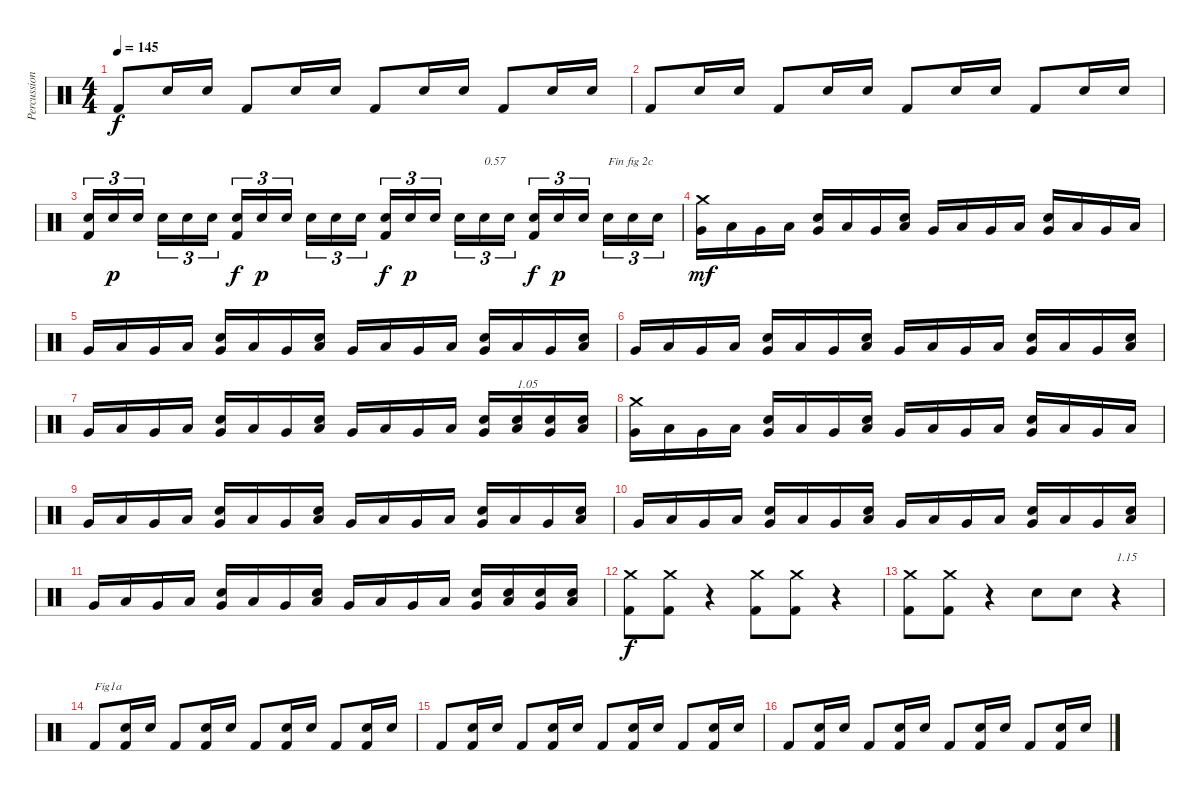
\track ("Percussions" "Percussion") {instrument percussion}
\staff {score}
\articulation defaults
\ts (4 4)
\tempo 145
\clef neutral
\ks c "Kick (hit) 2".8{dy f} "Electric Snare (hit)".16 "Electric Snare (hit)".16 "Kick (hit) 2".8 "Electric Snare (hit)".16 "Electric Snare (hit)".16 "Kick (hit) 2".8 "Electric Snare (hit)".16 "Electric Snare (hit)".16 "Kick (hit) 2".8 "Electric Snare (hit)".16 "Electric Snare (hit)".16
|
"Kick (hit) 2".8 "Electric Snare (hit)".16 "Electric Snare (hit)".16 "Kick (hit) 2".8 "Electric Snare (hit)".16 "Electric Snare (hit)".16 "Kick (hit) 2".8 "Electric Snare (hit)".16 "Electric Snare (hit)".16 "Kick (hit) 2".8 "Electric Snare (hit)".16 "Electric Snare (hit)".16 |
("Kick (hit) 2" "Electric Snare (hit)").16{tu (3 2)} "Electric Snare (hit)".16{tu (3 2) dy p} "Electric Snare (hit)".16{tu (3 2)} "Electric Snare (hit)".16{tu (3 2)} "Electric Snare (hit)".16{tu (3 2)} "Electric Snare (hit)".16{tu (3 2)} ("Kick (hit) 2" "Electric Snare (hit)").16{tu (3 2) dy f} "Electric Snare (hit)".16{tu (3 2) dy p} "Electric Snare (hit)".16{tu (3 2)} "Electric Snare (hit)".16{tu (3 2)} "Electric Snare (hit)".16{tu (3 2)} "Electric Snare (hit)".16{tu (3 2)} ("Kick (hit) 2" "Electric Snare (hit)").16{tu (3 2) dy f} "Electric Snare (hit)".16{tu (3 2) dy p} "Electric Snare (hit)".16{tu (3 2)} "Electric Snare (hit)".16{tu (3 2)} "Electric Snare (hit)".16{tu (3 2) txt "0.57"} "Electric Snare (hit)".16{tu (3 2)} ("Kick (hit) 2" "Electric Snare (hit)").16{tu (3 2) dy f} "Electric Snare (hit)".16{tu (3 2) dy p} "Electric Snare (hit)".16{tu (3 2)} "Electric Snare (hit)".16{tu (3 2) txt "Fin fig 2c"} "Electric Snare (hit)".16{tu (3 2)} "Electric Snare (hit)".16{tu (3 2)} |
("Very Low Tom (hit)" "Crash medium (hit)").16{dy mf} "Low Tom (hit)".16 "Very Low Tom (hit)".16 "Low Tom (hit)".16 ("Very Low Tom (hit)" "Electric Snare (hit)").16 "Low Tom (hit)".16 "Very Low Tom (hit)".16 ("Low Tom (hit)" "Electric Snare (hit)").16 "Very Low Tom (hit)".16 "Low Tom (hit)".16 "Very Low Tom (hit)".16 "Low Tom (hit)".16 ("Very Low Tom (hit)" "Electric Snare (hit)").16 "Low Tom (hit)".16 "Very Low Tom (hit)".16 "Low Tom (hit)".16 |
"Very Low Tom (hit)".16 "Low Tom (hit)".16 "Very Low Tom (hit)".16 "Low Tom (hit)".16 ("Very Low Tom (hit)" "Electric Snare (hit)").16 "Low Tom (hit)".16 "Very Low Tom (hit)".16 ("Low Tom (hit)" "Electric Snare (hit)").16 "Very Low Tom (hit)".16 "Low Tom (hit)".16 "Very Low Tom (hit)".16 "Low Tom (hit)".16 ("Very Low Tom (hit)" "Electric Snare (hit)").16 "Low Tom (hit)".16 "Very Low Tom (hit)".16 ("Low Tom (hit)" "Electric Snare (hit)").16 |
"Very Low Tom (hit)".16 "Low Tom (hit)".16 "Very Low Tom (hit)".16 "Low Tom (hit)".16 ("Very Low Tom (hit)" "Electric Snare (hit)").16 "Low Tom (hit)".16 "Very Low Tom (hit)".16 ("Low Tom (hit)" "Electric Snare (hit)").16 "Very Low Tom (hit)".16 "Low Tom (hit)".16 "Very Low Tom (hit)".16 "Low Tom (hit)".16 ("Very Low Tom (hit)" "Electric Snare (hit)").16 "Low Tom (hit)".16 "Very Low Tom (hit)".16 ("Low Tom (hit)" "Electric Snare (hit)").16 |
"Very Low Tom (hit)".16 "Low Tom (hit)".16 "Very Low Tom (hit)".16 "Low Tom (hit)".16 ("Very Low Tom (hit)" "Electric Snare (hit)").16 "Low Tom (hit)".16 "Very Low Tom (hit)".16 ("Low Tom (hit)" "Electric Snare (hit)").16 "Very Low Tom (hit)".16 "Low Tom (hit)".16 "Very Low Tom (hit)".16 "Low Tom (hit)".16 ("Very Low Tom (hit)" "Electric Snare (hit)").16 ("Low Tom (hit)" "Electric Snare (hit)").16{txt "1.05"} ("Very Low Tom (hit)" "Electric Snare (hit)").16 ("Low Tom (hit)" "Electric Snare (hit)").16 |
("Very Low Tom (hit)" "Crash medium (hit)").16 "Low Tom (hit)".16 "Very Low Tom (hit)".16 "Low Tom (hit)".16 ("Very Low Tom (hit)" "Electric Snare (hit)").16 "Low Tom (hit)".16 "Very Low Tom (hit)".16 ("Low Tom (hit)" "Electric Snare (hit)").16 "Very Low Tom (hit)".16 "Low Tom (hit)".16 "Very Low Tom (hit)".16 "Low Tom (hit)".16 ("Very Low Tom (hit)" "Electric Snare (hit)").16 "Low Tom (hit)".16 "Very Low Tom (hit)".16 "Low Tom (hit)".16 |
"Very Low Tom (hit)".16 "Low Tom (hit)".16 "Very Low Tom (hit)".16 "Low Tom (hit)".16 ("Very Low Tom (hit)" "Electric Snare (hit)").16 "Low Tom (hit)".16 "Very Low Tom (hit)".16 ("Low Tom (hit)" "Electric Snare (hit)").16 "Very Low Tom (hit)".16 "Low Tom (hit)".16 "Very Low Tom (hit)".16 "Low Tom (hit)".16 ("Very Low Tom (hit)" "Electric Snare (hit)").16 "Low Tom (hit)".16 "Very Low Tom (hit)".16 ("Low Tom (hit)" "Electric Snare (hit)").16 |
"Very Low Tom (hit)".16 "Low Tom (hit)".16 "Very Low Tom (hit)".16 "Low Tom (hit)".16 ("Very Low Tom (hit)" "Electric Snare (hit)").16 "Low Tom (hit)".16 "Very Low Tom (hit)".16 ("Low Tom (hit)" "Electric Snare (hit)").16 "Very Low Tom (hit)".16 "Low Tom (hit)".16 "Very Low Tom (hit)".16 "Low Tom (hit)".16 ("Very Low Tom (hit)" "Electric Snare (hit)").16 "Low Tom (hit)".16 "Very Low Tom (hit)".16 ("Low Tom (hit)" "Electric Snare (hit)").16 |
"Very Low Tom (hit)".16 "Low Tom (hit)".16 "Very Low Tom (hit)".16 "Low Tom (hit)".16 ("Very Low Tom (hit)" "Electric Snare (hit)").16 "Low Tom (hit)".16 "Very Low Tom (hit)".16 ("Low Tom (hit)" "Electric Snare (hit)").16 "Very Low Tom (hit)".16 "Low Tom (hit)".16 "Very Low Tom (hit)".16 "Low Tom (hit)".16 ("Very Low Tom (hit)" "Electric Snare (hit)").16 ("Low Tom (hit)" "Electric Snare (hit)").16 ("Very Low Tom (hit)" "Electric Snare (hit)").16 ("Low Tom (hit)" "Electric Snare (hit)").16 |
("Kick (hit) 2" "Crash medium (hit)").8{dy f} ("Kick (hit) 2" "Crash medium (hit)").8 r.4 ("Kick (hit) 2" "Crash medium (hit)").8 ("Kick (hit) 2" "Crash medium (hit)").8 r.4 |
("Kick (hit) 2" "Crash medium (hit)").8 ("Kick (hit) 2" "Crash medium (hit)").8 r.4 "Electric Snare (hit)".8 "Electric Snare (hit)".8 r.4{txt "1.15"} |
"Kick (hit) 2".8{txt "Fig1a"} ("Kick (hit) 2" "Electric Snare (hit)").16 "Electric Snare (hit)".16 "Kick (hit) 2".8 ("Kick (hit) 2" "Electric Snare (hit)").16 "Electric Snare (hit)".16 "Kick (hit) 2".8 ("Kick (hit) 2" "Electric Snare (hit)").16 "Electric Snare (hit)".16 "Kick (hit) 2".8 ("Kick (hit) 2" "Electric Snare (hit)").16 "Electric Snare (hit)".16 |
"Kick (hit) 2".8 ("Kick (hit) 2" "Electric Snare (hit)").16 "Electric Snare (hit)".16 "Kick (hit) 2".8 ("Kick (hit) 2" "Electric Snare (hit)").16 "Electric Snare (hit)".16 "Kick (hit) 2".8 ("Kick (hit) 2" "Electric Snare (hit)").16 "Electric Snare (hit)".16 "Kick (hit) 2".8 ("Kick (hit) 2" "Electric Snare (hit)").16 "Electric Snare (hit)".16 |
"Kick (hit) 2".8 ("Kick (hit) 2" "Electric Snare (hit)").16 "Electric Snare (hit)".16 "Kick (hit) 2".8 ("Kick (hit) 2" "Electric Snare (hit)").16 "Electric Snare (hit)".16 "Kick (hit) 2".8 ("Kick (hit) 2" "Electric Snare (hit)").16 "Electric Snare (hit)".16 "Kick (hit) 2".8 ("Kick (hit) 2" "Electric Snare (hit)").16 "Electric Snare (hit)".16
